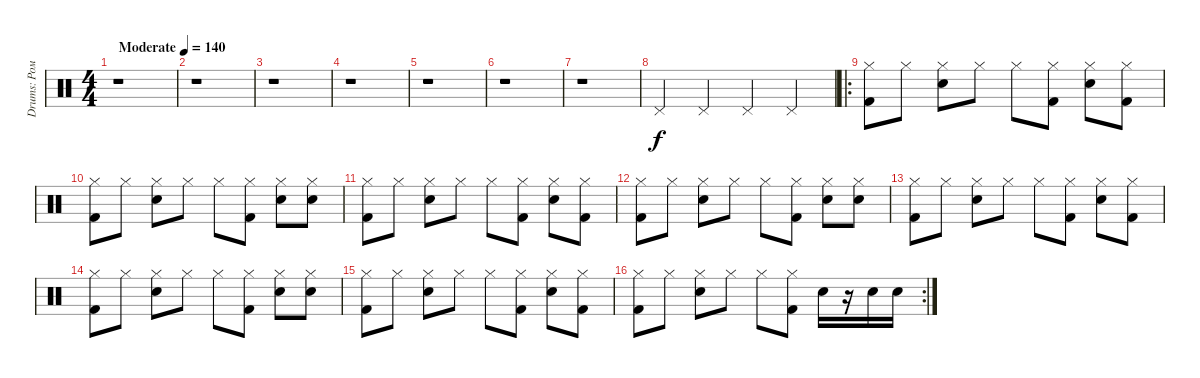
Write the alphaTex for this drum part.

\track ("Drums: Рома" "Drums: Ром") {instrument percussion}
\staff {score}
\articulation defaults
\ts (4 4)
\tempo (140 "Moderate")
\clef neutral
\ks c
r.1{dy f} |
r.1 |
r.1 |
r.1 |
r.1 |
r.1 |
r.1 |
"Pedal Hi-Hat (hit)".4 "Pedal Hi-Hat (hit)".4 "Pedal Hi-Hat (hit)".4 "Pedal Hi-Hat (hit)".4 |
\ro
("Hi-Hat (closed)" "Kick (hit) 2").8 "Hi-Hat (closed)".8 ("Hi-Hat (closed)" "Snare (hit) 2").8 "Hi-Hat (closed)".8 "Hi-Hat (closed)".8 ("Hi-Hat (closed)" "Kick (hit) 2").8 ("Hi-Hat (closed)" "Snare (hit) 2").8 ("Hi-Hat (closed)" "Kick (hit) 2").8 |
("Hi-Hat (closed)" "Kick (hit) 2").8 "Hi-Hat (closed)".8 ("Hi-Hat (closed)" "Snare (hit) 2").8 "Hi-Hat (closed)".8 "Hi-Hat (closed)".8 ("Hi-Hat (closed)" "Kick (hit) 2").8 ("Hi-Hat (closed)" "Snare (hit) 2").8 ("Hi-Hat (closed)" "Snare (hit) 2").8 |
("Hi-Hat (closed)" "Kick (hit) 2").8 "Hi-Hat (closed)".8 ("Hi-Hat (closed)" "Snare (hit) 2").8 "Hi-Hat (closed)".8 "Hi-Hat (closed)".8 ("Hi-Hat (closed)" "Kick (hit) 2").8 ("Hi-Hat (closed)" "Snare (hit) 2").8 ("Hi-Hat (closed)" "Kick (hit) 2").8 |
("Hi-Hat (closed)" "Kick (hit) 2").8 "Hi-Hat (closed)".8 ("Hi-Hat (closed)" "Snare (hit) 2").8 "Hi-Hat (closed)".8 "Hi-Hat (closed)".8 ("Hi-Hat (closed)" "Kick (hit) 2").8 ("Hi-Hat (closed)" "Snare (hit) 2").8 ("Hi-Hat (closed)" "Snare (hit) 2").8 |
("Hi-Hat (closed)" "Kick (hit) 2").8 "Hi-Hat (closed)".8 ("Hi-Hat (closed)" "Snare (hit) 2").8 "Hi-Hat (closed)".8 "Hi-Hat (closed)".8 ("Hi-Hat (closed)" "Kick (hit) 2").8 ("Hi-Hat (closed)" "Snare (hit) 2").8 ("Hi-Hat (closed)" "Kick (hit) 2").8 |
("Hi-Hat (closed)" "Kick (hit) 2").8 "Hi-Hat (closed)".8 ("Hi-Hat (closed)" "Snare (hit) 2").8 "Hi-Hat (closed)".8 "Hi-Hat (closed)".8 ("Hi-Hat (closed)" "Kick (hit) 2").8 ("Hi-Hat (closed)" "Snare (hit) 2").8 ("Hi-Hat (closed)" "Snare (hit) 2").8 |
("Hi-Hat (closed)" "Kick (hit) 2").8 "Hi-Hat (closed)".8 ("Hi-Hat (closed)" "Snare (hit) 2").8 "Hi-Hat (closed)".8 "Hi-Hat (closed)".8 ("Hi-Hat (closed)" "Kick (hit) 2").8 ("Hi-Hat (closed)" "Snare (hit) 2").8 ("Hi-Hat (closed)" "Kick (hit) 2").8 |
\rc 2
("Hi-Hat (closed)" "Kick (hit) 2").8 "Hi-Hat (closed)".8 ("Hi-Hat (closed)" "Snare (hit) 2").8 "Hi-Hat (closed)".8 "Hi-Hat (closed)".8 ("Hi-Hat (closed)" "Kick (hit) 2").8 "Snare (hit) 2".16 r.16 "Snare (hit) 2".16 "Snare (hit) 2".16
